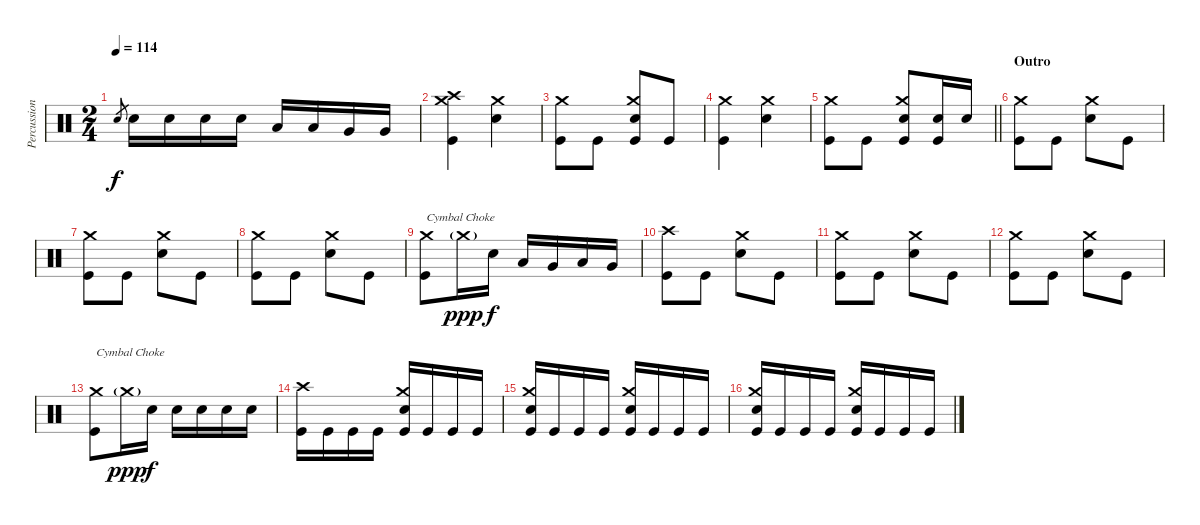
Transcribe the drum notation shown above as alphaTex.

\track ("Percussion" "Percussion") {instrument percussion}
\staff {score}
\articulation defaults
\ts (2 4)
\tempo 114
\clef neutral
\ks c "Electric Snare (hit)".8{gr dy f} "Electric Snare (hit)".16 "Electric Snare (hit)".16 "Electric Snare (hit)".16 "Electric Snare (hit)".16 "Low Tom (hit)".16 "Low Tom (hit)".16 "Very Low Tom (hit)".16 "Very Low Tom (hit)".16
|
("Crash high (hit)" "Crash medium (hit)" "Kick (hit)").4 ("Crash medium (hit)" "Electric Snare (hit)").4 |
("Crash medium (hit)" "Kick (hit)").8 "Kick (hit)".8 ("Crash medium (hit)" "Electric Snare (hit)" "Kick (hit)").8 "Kick (hit)".8 |
("Crash medium (hit)" "Kick (hit)").4 ("Crash medium (hit)" "Electric Snare (hit)").4 |
\barLineRight lightlight
("Crash medium (hit)" "Kick (hit)").8 "Kick (hit)".8 ("Crash medium (hit)" "Electric Snare (hit)" "Kick (hit)").8 ("Electric Snare (hit)" "Kick (hit)").16 "Electric Snare (hit)".16 |
\section ("" "Outro")
("Crash medium (hit)" "Kick (hit)").8 "Kick (hit)".8 ("Crash medium (hit)" "Electric Snare (hit)").8 "Kick (hit)".8 |
("Crash medium (hit)" "Kick (hit)").8 "Kick (hit)".8 ("Crash medium (hit)" "Electric Snare (hit)").8 "Kick (hit)".8 |
("Crash medium (hit)" "Kick (hit)").8 "Kick (hit)".8 ("Crash medium (hit)" "Electric Snare (hit)").8 "Kick (hit)".8 |
("Crash medium (hit)" "Kick (hit)").8{txt "Cymbal Choke"} "Crash medium (hit)"{g}.16{dy ppp} "Electric Snare (hit)".16{dy f} "Low Tom (hit)".16 "Very Low Tom (hit)".16 "Low Floor Tom (hit)".16 "Very Low Tom (hit)".16 |
("Crash high (hit)" "Kick (hit)").8 "Kick (hit)".8 ("Crash medium (hit)" "Electric Snare (hit)").8 "Kick (hit)".8 |
("Crash medium (hit)" "Kick (hit)").8 "Kick (hit)".8 ("Crash medium (hit)" "Electric Snare (hit)").8 "Kick (hit)".8 |
("Crash medium (hit)" "Kick (hit)").8 "Kick (hit)".8 ("Crash medium (hit)" "Electric Snare (hit)").8 "Kick (hit)".8 |
("Crash medium (hit)" "Kick (hit)").8{txt "Cymbal Choke"} "Crash medium (hit)"{g}.16{dy ppp} "Electric Snare (hit)".16{dy f} "Electric Snare (hit)".16 "Electric Snare (hit)".16 "Electric Snare (hit)".16 "Electric Snare (hit)".16 |
("Crash high (hit)" "Kick (hit)").16 "Kick (hit)".16 "Kick (hit)".16 "Kick (hit)".16 ("Crash medium (hit)" "Electric Snare (hit)" "Kick (hit)").16 "Kick (hit)".16 "Kick (hit)".16 "Kick (hit)".16 |
("Crash medium (hit)" "Electric Snare (hit)" "Kick (hit)").16 "Kick (hit)".16 "Kick (hit)".16 "Kick (hit)".16 ("Crash medium (hit)" "Electric Snare (hit)" "Kick (hit)").16 "Kick (hit)".16 "Kick (hit)".16 "Kick (hit)".16 |
("Crash medium (hit)" "Electric Snare (hit)" "Kick (hit)").16 "Kick (hit)".16 "Kick (hit)".16 "Kick (hit)".16 ("Crash medium (hit)" "Electric Snare (hit)" "Kick (hit)").16 "Kick (hit)".16 "Kick (hit)".16 "Kick (hit)".16
